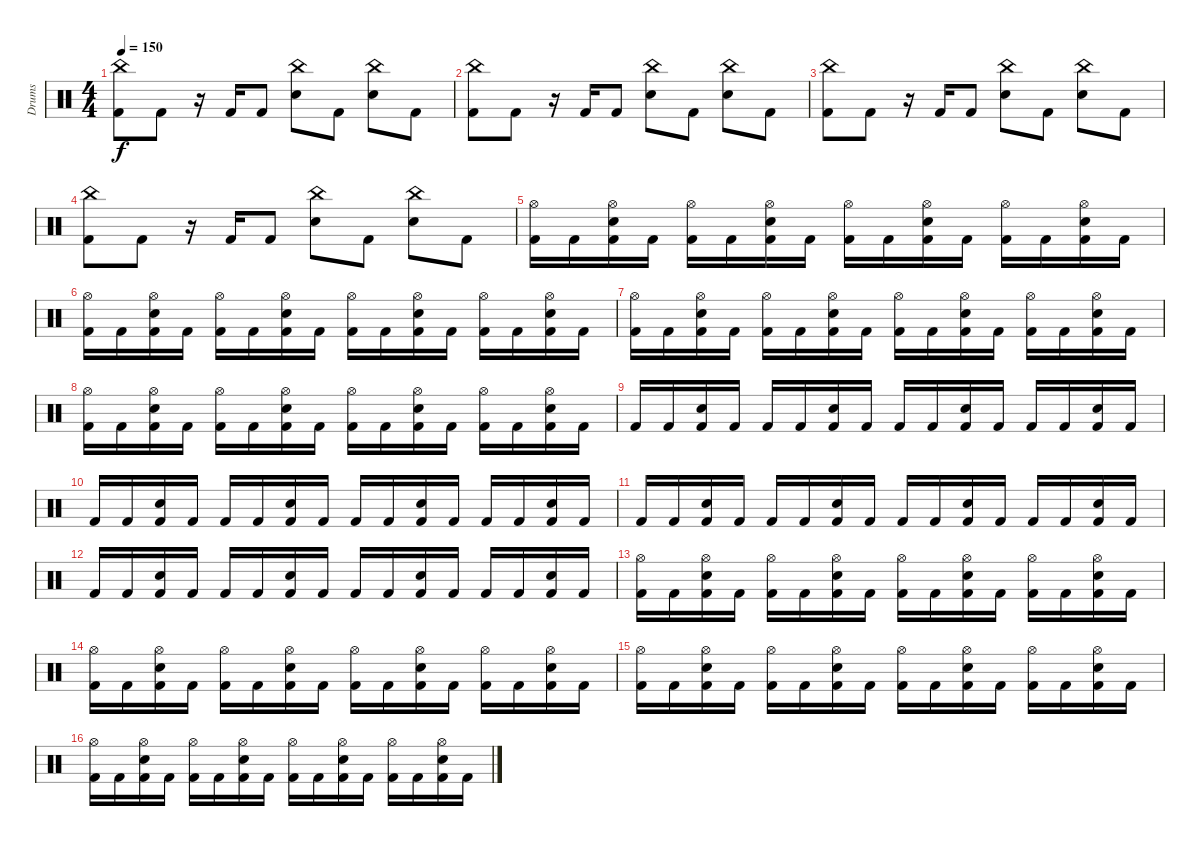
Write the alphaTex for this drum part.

\track ("Drums" "Drums") {instrument percussion}
\staff {score}
\articulation defaults
\ts (4 4)
\tempo 150
\clef neutral
\ks c
("China (hit)" "Kick (hit) 2").8{dy f} "Kick (hit) 2".8 r.16 "Kick (hit) 2".16 "Kick (hit) 2".8 ("China (hit)" "Electric Snare (hit)").8 "Kick (hit) 2".8 ("China (hit)" "Electric Snare (hit)").8 "Kick (hit) 2".8 |
("China (hit)" "Kick (hit) 2").8 "Kick (hit) 2".8 r.16 "Kick (hit) 2".16 "Kick (hit) 2".8 ("China (hit)" "Electric Snare (hit)").8 "Kick (hit) 2".8 ("China (hit)" "Electric Snare (hit)").8 "Kick (hit) 2".8 |
("China (hit)" "Kick (hit) 2").8 "Kick (hit) 2".8 r.16 "Kick (hit) 2".16 "Kick (hit) 2".8 ("China (hit)" "Electric Snare (hit)").8 "Kick (hit) 2".8 ("China (hit)" "Electric Snare (hit)").8 "Kick (hit) 2".8 |
("China (hit)" "Kick (hit) 2").8 "Kick (hit) 2".8 r.16 "Kick (hit) 2".16 "Kick (hit) 2".8 ("China (hit)" "Electric Snare (hit)").8 "Kick (hit) 2".8 ("China (hit)" "Electric Snare (hit)").8 "Kick (hit) 2".8 |
("Hi-Hat (open)" "Kick (hit) 2").16 "Kick (hit) 2".16 ("Hi-Hat (open)" "Electric Snare (hit)" "Kick (hit) 2").16 "Kick (hit) 2".16 ("Hi-Hat (open)" "Kick (hit) 2").16 "Kick (hit) 2".16 ("Hi-Hat (open)" "Electric Snare (hit)" "Kick (hit) 2").16 "Kick (hit) 2".16 ("Hi-Hat (open)" "Kick (hit) 2").16 "Kick (hit) 2".16 ("Hi-Hat (open)" "Electric Snare (hit)" "Kick (hit) 2").16 "Kick (hit) 2".16 ("Hi-Hat (open)" "Kick (hit) 2").16 "Kick (hit) 2".16 ("Hi-Hat (open)" "Electric Snare (hit)" "Kick (hit) 2").16 "Kick (hit) 2".16 |
("Hi-Hat (open)" "Kick (hit) 2").16 "Kick (hit) 2".16 ("Hi-Hat (open)" "Electric Snare (hit)" "Kick (hit) 2").16 "Kick (hit) 2".16 ("Hi-Hat (open)" "Kick (hit) 2").16 "Kick (hit) 2".16 ("Hi-Hat (open)" "Electric Snare (hit)" "Kick (hit) 2").16 "Kick (hit) 2".16 ("Hi-Hat (open)" "Kick (hit) 2").16 "Kick (hit) 2".16 ("Hi-Hat (open)" "Electric Snare (hit)" "Kick (hit) 2").16 "Kick (hit) 2".16 ("Hi-Hat (open)" "Kick (hit) 2").16 "Kick (hit) 2".16 ("Hi-Hat (open)" "Electric Snare (hit)" "Kick (hit) 2").16 "Kick (hit) 2".16 |
("Hi-Hat (open)" "Kick (hit) 2").16 "Kick (hit) 2".16 ("Hi-Hat (open)" "Electric Snare (hit)" "Kick (hit) 2").16 "Kick (hit) 2".16 ("Hi-Hat (open)" "Kick (hit) 2").16 "Kick (hit) 2".16 ("Hi-Hat (open)" "Electric Snare (hit)" "Kick (hit) 2").16 "Kick (hit) 2".16 ("Hi-Hat (open)" "Kick (hit) 2").16 "Kick (hit) 2".16 ("Hi-Hat (open)" "Electric Snare (hit)" "Kick (hit) 2").16 "Kick (hit) 2".16 ("Hi-Hat (open)" "Kick (hit) 2").16 "Kick (hit) 2".16 ("Hi-Hat (open)" "Electric Snare (hit)" "Kick (hit) 2").16 "Kick (hit) 2".16 |
("Hi-Hat (open)" "Kick (hit) 2").16 "Kick (hit) 2".16 ("Hi-Hat (open)" "Electric Snare (hit)" "Kick (hit) 2").16 "Kick (hit) 2".16 ("Hi-Hat (open)" "Kick (hit) 2").16 "Kick (hit) 2".16 ("Hi-Hat (open)" "Electric Snare (hit)" "Kick (hit) 2").16 "Kick (hit) 2".16 ("Hi-Hat (open)" "Kick (hit) 2").16 "Kick (hit) 2".16 ("Hi-Hat (open)" "Electric Snare (hit)" "Kick (hit) 2").16 "Kick (hit) 2".16 ("Hi-Hat (open)" "Kick (hit) 2").16 "Kick (hit) 2".16 ("Hi-Hat (open)" "Electric Snare (hit)" "Kick (hit) 2").16 "Kick (hit) 2".16 |
"Kick (hit) 2".16 "Kick (hit) 2".16 ("Electric Snare (hit)" "Kick (hit) 2").16 "Kick (hit) 2".16 "Kick (hit) 2".16 "Kick (hit) 2".16 ("Electric Snare (hit)" "Kick (hit) 2").16 "Kick (hit) 2".16 "Kick (hit) 2".16 "Kick (hit) 2".16 ("Electric Snare (hit)" "Kick (hit) 2").16 "Kick (hit) 2".16 "Kick (hit) 2".16 "Kick (hit) 2".16 ("Electric Snare (hit)" "Kick (hit) 2").16 "Kick (hit) 2".16 |
"Kick (hit) 2".16 "Kick (hit) 2".16 ("Electric Snare (hit)" "Kick (hit) 2").16 "Kick (hit) 2".16 "Kick (hit) 2".16 "Kick (hit) 2".16 ("Electric Snare (hit)" "Kick (hit) 2").16 "Kick (hit) 2".16 "Kick (hit) 2".16 "Kick (hit) 2".16 ("Electric Snare (hit)" "Kick (hit) 2").16 "Kick (hit) 2".16 "Kick (hit) 2".16 "Kick (hit) 2".16 ("Electric Snare (hit)" "Kick (hit) 2").16 "Kick (hit) 2".16 |
"Kick (hit) 2".16 "Kick (hit) 2".16 ("Electric Snare (hit)" "Kick (hit) 2").16 "Kick (hit) 2".16 "Kick (hit) 2".16 "Kick (hit) 2".16 ("Electric Snare (hit)" "Kick (hit) 2").16 "Kick (hit) 2".16 "Kick (hit) 2".16 "Kick (hit) 2".16 ("Electric Snare (hit)" "Kick (hit) 2").16 "Kick (hit) 2".16 "Kick (hit) 2".16 "Kick (hit) 2".16 ("Electric Snare (hit)" "Kick (hit) 2").16 "Kick (hit) 2".16 |
"Kick (hit) 2".16 "Kick (hit) 2".16 ("Electric Snare (hit)" "Kick (hit) 2").16 "Kick (hit) 2".16 "Kick (hit) 2".16 "Kick (hit) 2".16 ("Electric Snare (hit)" "Kick (hit) 2").16 "Kick (hit) 2".16 "Kick (hit) 2".16 "Kick (hit) 2".16 ("Electric Snare (hit)" "Kick (hit) 2").16 "Kick (hit) 2".16 "Kick (hit) 2".16 "Kick (hit) 2".16 ("Electric Snare (hit)" "Kick (hit) 2").16 "Kick (hit) 2".16 |
("Hi-Hat (open)" "Kick (hit) 2").16 "Kick (hit) 2".16 ("Hi-Hat (open)" "Electric Snare (hit)" "Kick (hit) 2").16 "Kick (hit) 2".16 ("Hi-Hat (open)" "Kick (hit) 2").16 "Kick (hit) 2".16 ("Hi-Hat (open)" "Electric Snare (hit)" "Kick (hit) 2").16 "Kick (hit) 2".16 ("Hi-Hat (open)" "Kick (hit) 2").16 "Kick (hit) 2".16 ("Hi-Hat (open)" "Electric Snare (hit)" "Kick (hit) 2").16 "Kick (hit) 2".16 ("Hi-Hat (open)" "Kick (hit) 2").16 "Kick (hit) 2".16 ("Hi-Hat (open)" "Electric Snare (hit)" "Kick (hit) 2").16 "Kick (hit) 2".16 |
("Hi-Hat (open)" "Kick (hit) 2").16 "Kick (hit) 2".16 ("Hi-Hat (open)" "Electric Snare (hit)" "Kick (hit) 2").16 "Kick (hit) 2".16 ("Hi-Hat (open)" "Kick (hit) 2").16 "Kick (hit) 2".16 ("Hi-Hat (open)" "Electric Snare (hit)" "Kick (hit) 2").16 "Kick (hit) 2".16 ("Hi-Hat (open)" "Kick (hit) 2").16 "Kick (hit) 2".16 ("Hi-Hat (open)" "Electric Snare (hit)" "Kick (hit) 2").16 "Kick (hit) 2".16 ("Hi-Hat (open)" "Kick (hit) 2").16 "Kick (hit) 2".16 ("Hi-Hat (open)" "Electric Snare (hit)" "Kick (hit) 2").16 "Kick (hit) 2".16 |
("Hi-Hat (open)" "Kick (hit) 2").16 "Kick (hit) 2".16 ("Hi-Hat (open)" "Electric Snare (hit)" "Kick (hit) 2").16 "Kick (hit) 2".16 ("Hi-Hat (open)" "Kick (hit) 2").16 "Kick (hit) 2".16 ("Hi-Hat (open)" "Electric Snare (hit)" "Kick (hit) 2").16 "Kick (hit) 2".16 ("Hi-Hat (open)" "Kick (hit) 2").16 "Kick (hit) 2".16 ("Hi-Hat (open)" "Electric Snare (hit)" "Kick (hit) 2").16 "Kick (hit) 2".16 ("Hi-Hat (open)" "Kick (hit) 2").16 "Kick (hit) 2".16 ("Hi-Hat (open)" "Electric Snare (hit)" "Kick (hit) 2").16 "Kick (hit) 2".16 |
("Hi-Hat (open)" "Kick (hit) 2").16 "Kick (hit) 2".16 ("Hi-Hat (open)" "Electric Snare (hit)" "Kick (hit) 2").16 "Kick (hit) 2".16 ("Hi-Hat (open)" "Kick (hit) 2").16 "Kick (hit) 2".16 ("Hi-Hat (open)" "Electric Snare (hit)" "Kick (hit) 2").16 "Kick (hit) 2".16 ("Hi-Hat (open)" "Kick (hit) 2").16 "Kick (hit) 2".16 ("Hi-Hat (open)" "Electric Snare (hit)" "Kick (hit) 2").16 "Kick (hit) 2".16 ("Hi-Hat (open)" "Kick (hit) 2").16 "Kick (hit) 2".16 ("Hi-Hat (open)" "Electric Snare (hit)" "Kick (hit) 2").16 "Kick (hit) 2".16
